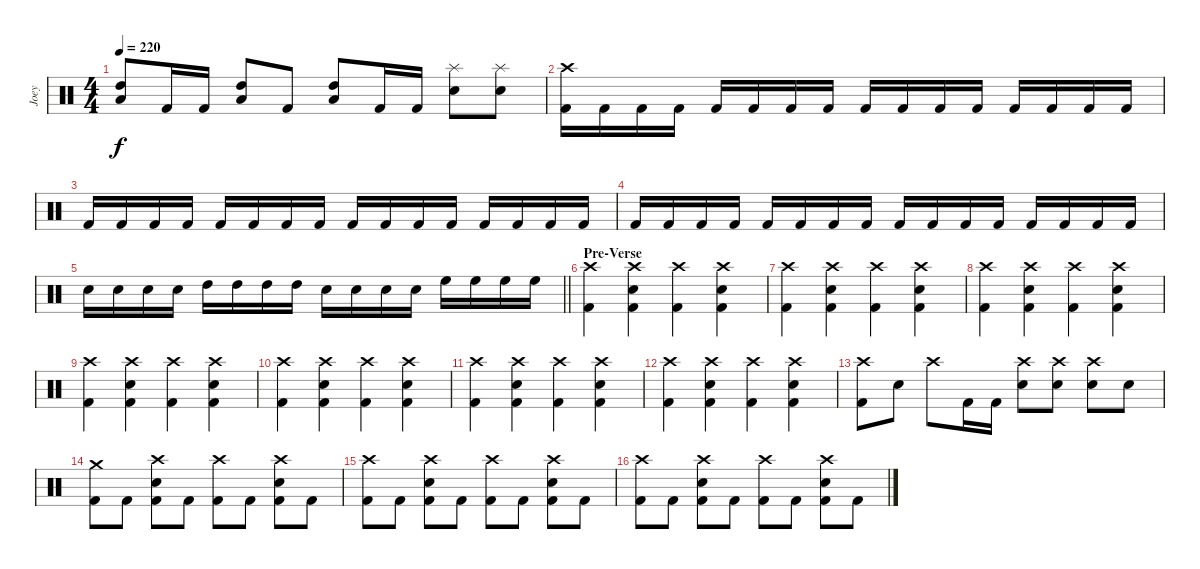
\track ("Joey" "Joey") {instrument percussion}
\staff {score}
\articulation defaults
\ts (4 4)
\tempo 220
\clef neutral
\ks c
("High Tom (hit)" "Low Floor Tom (hit)").8{dy f} "Kick (hit) 2".16 "Kick (hit) 2".16 ("High Tom (hit)" "Low Floor Tom (hit)").8 "Kick (hit) 2".8 ("High Tom (hit)" "Low Floor Tom (hit)").8 "Kick (hit) 2".16 "Kick (hit) 2".16 ("Splash (hit)" "Electric Snare (hit)").8 ("Splash (hit)" "Electric Snare (hit)").8 |
("Crash high (hit)" "Kick (hit) 2").16 "Kick (hit) 2".16 "Kick (hit) 2".16 "Kick (hit) 2".16 "Kick (hit) 2".16 "Kick (hit) 2".16 "Kick (hit) 2".16 "Kick (hit) 2".16 "Kick (hit) 2".16 "Kick (hit) 2".16 "Kick (hit) 2".16 "Kick (hit) 2".16 "Kick (hit) 2".16 "Kick (hit) 2".16 "Kick (hit) 2".16 "Kick (hit) 2".16 |
"Kick (hit) 2".16 "Kick (hit) 2".16 "Kick (hit) 2".16 "Kick (hit) 2".16 "Kick (hit) 2".16 "Kick (hit) 2".16 "Kick (hit) 2".16 "Kick (hit) 2".16 "Kick (hit) 2".16 "Kick (hit) 2".16 "Kick (hit) 2".16 "Kick (hit) 2".16 "Kick (hit) 2".16 "Kick (hit) 2".16 "Kick (hit) 2".16 "Kick (hit) 2".16 |
"Kick (hit) 2".16 "Kick (hit) 2".16 "Kick (hit) 2".16 "Kick (hit) 2".16 "Kick (hit) 2".16 "Kick (hit) 2".16 "Kick (hit) 2".16 "Kick (hit) 2".16 "Kick (hit) 2".16 "Kick (hit) 2".16 "Kick (hit) 2".16 "Kick (hit) 2".16 "Kick (hit) 2".16 "Kick (hit) 2".16 "Kick (hit) 2".16 "Kick (hit) 2".16 |
\barLineRight lightlight "Electric Snare (hit)".16 "Electric Snare (hit)".16 "Electric Snare (hit)".16 "Electric Snare (hit)".16 "High Tom (hit)".16 "High Tom (hit)".16 "High Tom (hit)".16 "High Tom (hit)".16 "Electric Snare (hit)".16 "Electric Snare (hit)".16 "Electric Snare (hit)".16 "Electric Snare (hit)".16 "High Floor Tom (hit)".16 "High Floor Tom (hit)".16 "High Floor Tom (hit)".16 "High Floor Tom (hit)".16
|
\section ("" "Pre-Verse")
("Crash high (hit)" "Kick (hit) 2").4 ("Crash high (hit)" "Electric Snare (hit)" "Kick (hit) 2").4 ("Crash high (hit)" "Kick (hit) 2").4 ("Crash high (hit)" "Electric Snare (hit)" "Kick (hit) 2").4 |
("Crash high (hit)" "Kick (hit) 2").4 ("Crash high (hit)" "Electric Snare (hit)" "Kick (hit) 2").4 ("Crash high (hit)" "Kick (hit) 2").4 ("Crash high (hit)" "Electric Snare (hit)" "Kick (hit) 2").4 |
("Crash high (hit)" "Kick (hit) 2").4 ("Crash high (hit)" "Electric Snare (hit)" "Kick (hit) 2").4 ("Crash high (hit)" "Kick (hit) 2").4 ("Crash high (hit)" "Electric Snare (hit)" "Kick (hit) 2").4 |
("Crash high (hit)" "Kick (hit) 2").4 ("Crash high (hit)" "Electric Snare (hit)" "Kick (hit) 2").4 ("Crash high (hit)" "Kick (hit) 2").4 ("Crash high (hit)" "Electric Snare (hit)" "Kick (hit) 2").4 |
("Crash high (hit)" "Kick (hit) 2").4 ("Crash high (hit)" "Electric Snare (hit)" "Kick (hit) 2").4 ("Crash high (hit)" "Kick (hit) 2").4 ("Crash high (hit)" "Electric Snare (hit)" "Kick (hit) 2").4 |
("Crash high (hit)" "Kick (hit) 2").4 ("Crash high (hit)" "Electric Snare (hit)" "Kick (hit) 2").4 ("Crash high (hit)" "Kick (hit) 2").4 ("Crash high (hit)" "Electric Snare (hit)" "Kick (hit) 2").4 |
("Crash high (hit)" "Kick (hit) 2").4 ("Crash high (hit)" "Electric Snare (hit)" "Kick (hit) 2").4 ("Crash high (hit)" "Kick (hit) 2").4 ("Crash high (hit)" "Electric Snare (hit)" "Kick (hit) 2").4 |
("Crash high (hit)" "Kick (hit) 2").8 "Electric Snare (hit)".8 "Crash high (hit)".8 "Kick (hit) 2".16 "Kick (hit) 2".16 ("Crash high (hit)" "Electric Snare (hit)").8 ("Crash high (hit)" "Electric Snare (hit)").8 ("Crash high (hit)" "Electric Snare (hit)").8 "Electric Snare (hit)".8 |
("Crash medium (hit)" "Kick (hit) 2").8 "Kick (hit) 2".8 ("Crash high (hit)" "Electric Snare (hit)" "Kick (hit) 2").8 "Kick (hit) 2".8 ("Crash high (hit)" "Kick (hit) 2").8 "Kick (hit) 2".8 ("Crash high (hit)" "Electric Snare (hit)" "Kick (hit) 2").8 "Kick (hit) 2".8 |
("Crash high (hit)" "Kick (hit) 2").8 "Kick (hit) 2".8 ("Crash high (hit)" "Electric Snare (hit)" "Kick (hit) 2").8 "Kick (hit) 2".8 ("Crash high (hit)" "Kick (hit) 2").8 "Kick (hit) 2".8 ("Crash high (hit)" "Electric Snare (hit)" "Kick (hit) 2").8 "Kick (hit) 2".8 |
("Crash high (hit)" "Kick (hit) 2").8 "Kick (hit) 2".8 ("Crash high (hit)" "Electric Snare (hit)" "Kick (hit) 2").8 "Kick (hit) 2".8 ("Crash high (hit)" "Kick (hit) 2").8 "Kick (hit) 2".8 ("Crash high (hit)" "Electric Snare (hit)" "Kick (hit) 2").8 "Kick (hit) 2".8
